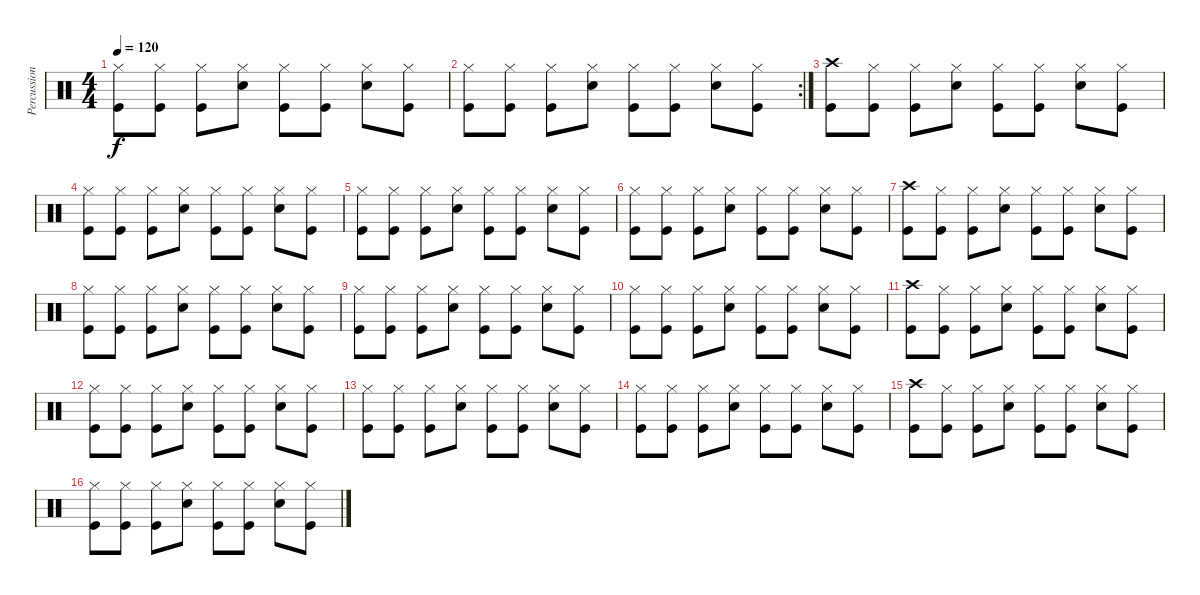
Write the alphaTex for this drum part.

\track ("Percussions" "Percussion") {instrument percussion}
\staff {score}
\articulation defaults
\ts (4 4)
\tempo 120
\clef neutral
\ks c
("Hi-Hat (closed)" "Kick (hit)").8{dy f} ("Hi-Hat (closed)" "Kick (hit)").8 ("Hi-Hat (closed)" "Kick (hit)").8 ("Hi-Hat (closed)" "Electric Snare (hit)").8 ("Hi-Hat (closed)" "Kick (hit)").8 ("Hi-Hat (closed)" "Kick (hit)").8 ("Hi-Hat (closed)" "Electric Snare (hit)").8 ("Hi-Hat (closed)" "Kick (hit)").8 |
\rc 2
("Hi-Hat (closed)" "Kick (hit)").8 ("Hi-Hat (closed)" "Kick (hit)").8 ("Hi-Hat (closed)" "Kick (hit)").8 ("Hi-Hat (closed)" "Electric Snare (hit)").8 ("Hi-Hat (closed)" "Kick (hit)").8 ("Hi-Hat (closed)" "Kick (hit)").8 ("Hi-Hat (closed)" "Electric Snare (hit)").8 ("Hi-Hat (closed)" "Kick (hit)").8 |
("Crash high (hit)" "Kick (hit)").8 ("Hi-Hat (closed)" "Kick (hit)").8 ("Hi-Hat (closed)" "Kick (hit)").8 ("Hi-Hat (closed)" "Electric Snare (hit)").8 ("Hi-Hat (closed)" "Kick (hit)").8 ("Hi-Hat (closed)" "Kick (hit)").8 ("Hi-Hat (closed)" "Electric Snare (hit)").8 ("Hi-Hat (closed)" "Kick (hit)").8 |
("Hi-Hat (closed)" "Kick (hit)").8 ("Hi-Hat (closed)" "Kick (hit)").8 ("Hi-Hat (closed)" "Kick (hit)").8 ("Hi-Hat (closed)" "Electric Snare (hit)").8 ("Hi-Hat (closed)" "Kick (hit)").8 ("Hi-Hat (closed)" "Kick (hit)").8 ("Hi-Hat (closed)" "Electric Snare (hit)").8 ("Hi-Hat (closed)" "Kick (hit)").8 |
("Hi-Hat (closed)" "Kick (hit)").8 ("Hi-Hat (closed)" "Kick (hit)").8 ("Hi-Hat (closed)" "Kick (hit)").8 ("Hi-Hat (closed)" "Electric Snare (hit)").8 ("Hi-Hat (closed)" "Kick (hit)").8 ("Hi-Hat (closed)" "Kick (hit)").8 ("Hi-Hat (closed)" "Electric Snare (hit)").8 ("Hi-Hat (closed)" "Kick (hit)").8 |
("Hi-Hat (closed)" "Kick (hit)").8 ("Hi-Hat (closed)" "Kick (hit)").8 ("Hi-Hat (closed)" "Kick (hit)").8 ("Hi-Hat (closed)" "Electric Snare (hit)").8 ("Hi-Hat (closed)" "Kick (hit)").8 ("Hi-Hat (closed)" "Kick (hit)").8 ("Hi-Hat (closed)" "Electric Snare (hit)").8 ("Hi-Hat (closed)" "Kick (hit)").8 |
("Crash high (hit)" "Kick (hit)").8 ("Hi-Hat (closed)" "Kick (hit)").8 ("Hi-Hat (closed)" "Kick (hit)").8 ("Hi-Hat (closed)" "Electric Snare (hit)").8 ("Hi-Hat (closed)" "Kick (hit)").8 ("Hi-Hat (closed)" "Kick (hit)").8 ("Hi-Hat (closed)" "Electric Snare (hit)").8 ("Hi-Hat (closed)" "Kick (hit)").8 |
("Hi-Hat (closed)" "Kick (hit)").8 ("Hi-Hat (closed)" "Kick (hit)").8 ("Hi-Hat (closed)" "Kick (hit)").8 ("Hi-Hat (closed)" "Electric Snare (hit)").8 ("Hi-Hat (closed)" "Kick (hit)").8 ("Hi-Hat (closed)" "Kick (hit)").8 ("Hi-Hat (closed)" "Electric Snare (hit)").8 ("Hi-Hat (closed)" "Kick (hit)").8 |
("Hi-Hat (closed)" "Kick (hit)").8 ("Hi-Hat (closed)" "Kick (hit)").8 ("Hi-Hat (closed)" "Kick (hit)").8 ("Hi-Hat (closed)" "Electric Snare (hit)").8 ("Hi-Hat (closed)" "Kick (hit)").8 ("Hi-Hat (closed)" "Kick (hit)").8 ("Hi-Hat (closed)" "Electric Snare (hit)").8 ("Hi-Hat (closed)" "Kick (hit)").8 |
("Hi-Hat (closed)" "Kick (hit)").8 ("Hi-Hat (closed)" "Kick (hit)").8 ("Hi-Hat (closed)" "Kick (hit)").8 ("Hi-Hat (closed)" "Electric Snare (hit)").8 ("Hi-Hat (closed)" "Kick (hit)").8 ("Hi-Hat (closed)" "Kick (hit)").8 ("Hi-Hat (closed)" "Electric Snare (hit)").8 ("Hi-Hat (closed)" "Kick (hit)").8 |
("Crash high (hit)" "Kick (hit)").8 ("Hi-Hat (closed)" "Kick (hit)").8 ("Hi-Hat (closed)" "Kick (hit)").8 ("Hi-Hat (closed)" "Electric Snare (hit)").8 ("Hi-Hat (closed)" "Kick (hit)").8 ("Hi-Hat (closed)" "Kick (hit)").8 ("Hi-Hat (closed)" "Electric Snare (hit)").8 ("Hi-Hat (closed)" "Kick (hit)").8 |
("Hi-Hat (closed)" "Kick (hit)").8 ("Hi-Hat (closed)" "Kick (hit)").8 ("Hi-Hat (closed)" "Kick (hit)").8 ("Hi-Hat (closed)" "Electric Snare (hit)").8 ("Hi-Hat (closed)" "Kick (hit)").8 ("Hi-Hat (closed)" "Kick (hit)").8 ("Hi-Hat (closed)" "Electric Snare (hit)").8 ("Hi-Hat (closed)" "Kick (hit)").8 |
("Hi-Hat (closed)" "Kick (hit)").8 ("Hi-Hat (closed)" "Kick (hit)").8 ("Hi-Hat (closed)" "Kick (hit)").8 ("Hi-Hat (closed)" "Electric Snare (hit)").8 ("Hi-Hat (closed)" "Kick (hit)").8 ("Hi-Hat (closed)" "Kick (hit)").8 ("Hi-Hat (closed)" "Electric Snare (hit)").8 ("Hi-Hat (closed)" "Kick (hit)").8 |
("Hi-Hat (closed)" "Kick (hit)").8 ("Hi-Hat (closed)" "Kick (hit)").8 ("Hi-Hat (closed)" "Kick (hit)").8 ("Hi-Hat (closed)" "Electric Snare (hit)").8 ("Hi-Hat (closed)" "Kick (hit)").8 ("Hi-Hat (closed)" "Kick (hit)").8 ("Hi-Hat (closed)" "Electric Snare (hit)").8 ("Hi-Hat (closed)" "Kick (hit)").8 |
("Crash high (hit)" "Kick (hit)").8 ("Hi-Hat (closed)" "Kick (hit)").8 ("Hi-Hat (closed)" "Kick (hit)").8 ("Hi-Hat (closed)" "Electric Snare (hit)").8 ("Hi-Hat (closed)" "Kick (hit)").8 ("Hi-Hat (closed)" "Kick (hit)").8 ("Hi-Hat (closed)" "Electric Snare (hit)").8 ("Hi-Hat (closed)" "Kick (hit)").8 |
("Hi-Hat (closed)" "Kick (hit)").8 ("Hi-Hat (closed)" "Kick (hit)").8 ("Hi-Hat (closed)" "Kick (hit)").8 ("Hi-Hat (closed)" "Electric Snare (hit)").8 ("Hi-Hat (closed)" "Kick (hit)").8 ("Hi-Hat (closed)" "Kick (hit)").8 ("Hi-Hat (closed)" "Electric Snare (hit)").8 ("Hi-Hat (closed)" "Kick (hit)").8
